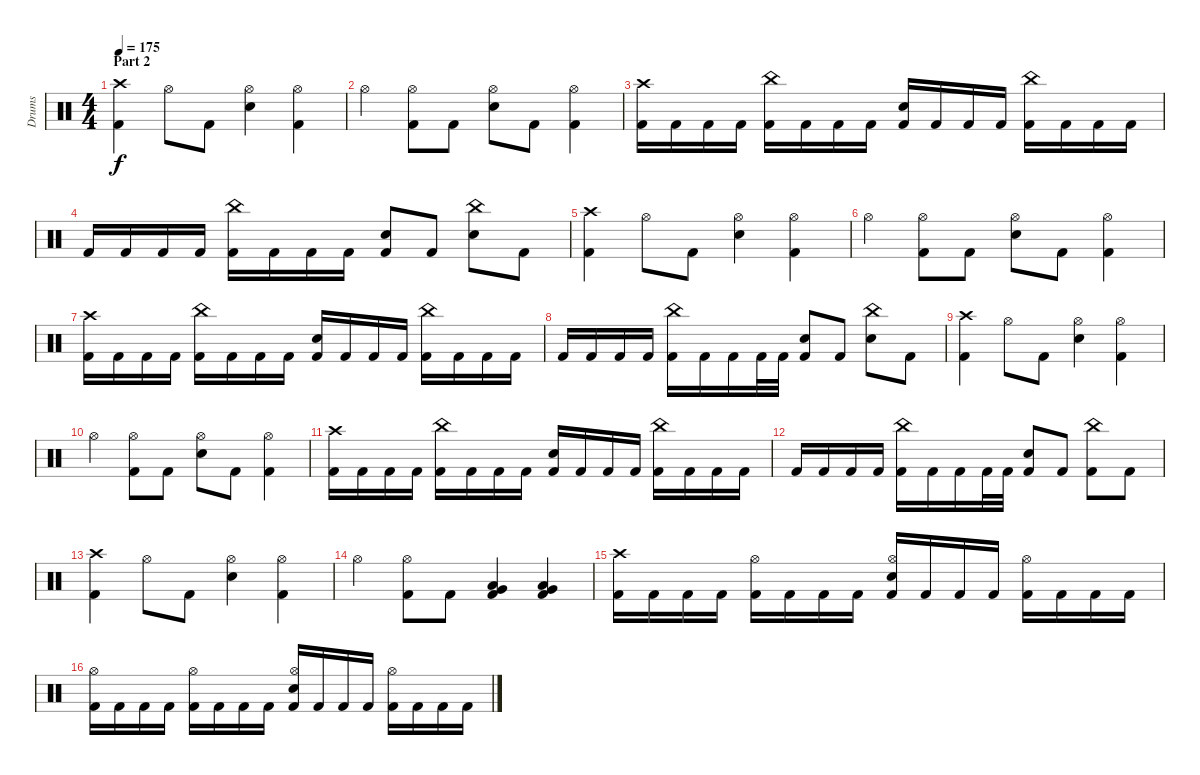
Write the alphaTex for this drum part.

\track ("Drums" "Drums") {instrument percussion}
\staff {score}
\articulation defaults
\ts (4 4)
\section ("" "Part 2")
\tempo 175
\clef neutral
\ks c
("Crash high (hit)" "Kick (hit) 2").4{dy f} "Hi-Hat (open)".8 "Kick (hit) 2".8 ("Hi-Hat (open)" "Snare (hit) 2").4 ("Hi-Hat (open)" "Kick (hit) 2").4 |
"Hi-Hat (open)".4 ("Hi-Hat (open)" "Kick (hit) 2").8 "Kick (hit) 2".8 ("Hi-Hat (open)" "Snare (hit) 2").8 "Kick (hit) 2".8 ("Hi-Hat (open)" "Kick (hit) 2").4 |
("Crash high (hit)" "Kick (hit) 2").16 "Kick (hit) 2".16 "Kick (hit) 2".16 "Kick (hit) 2".16 ("China (hit)" "Kick (hit) 2").16 "Kick (hit) 2".16 "Kick (hit) 2".16 "Kick (hit) 2".16 ("Snare (hit) 2" "Kick (hit) 2").16 "Kick (hit) 2".16 "Kick (hit) 2".16 "Kick (hit) 2".16 ("China (hit)" "Kick (hit) 2").16 "Kick (hit) 2".16 "Kick (hit) 2".16 "Kick (hit) 2".16 |
"Kick (hit) 2".16 "Kick (hit) 2".16 "Kick (hit) 2".16 "Kick (hit) 2".16 ("China (hit)" "Kick (hit) 2").16 "Kick (hit) 2".16 "Kick (hit) 2".16 "Kick (hit) 2".16 ("Snare (hit) 2" "Kick (hit) 2").8 "Kick (hit) 2".8 ("China (hit)" "Snare (hit) 2").8 "Kick (hit) 2".8 |
("Crash high (hit)" "Kick (hit) 2").4 "Hi-Hat (open)".8 "Kick (hit) 2".8 ("Hi-Hat (open)" "Snare (hit) 2").4 ("Hi-Hat (open)" "Kick (hit) 2").4 |
"Hi-Hat (open)".4 ("Hi-Hat (open)" "Kick (hit) 2").8 "Kick (hit) 2".8 ("Hi-Hat (open)" "Snare (hit) 2").8 "Kick (hit) 2".8 ("Hi-Hat (open)" "Kick (hit) 2").4 |
("Crash high (hit)" "Kick (hit) 2").16 "Kick (hit) 2".16 "Kick (hit) 2".16 "Kick (hit) 2".16 ("China (hit)" "Kick (hit) 2").16 "Kick (hit) 2".16 "Kick (hit) 2".16 "Kick (hit) 2".16 ("Snare (hit) 2" "Kick (hit) 2").16 "Kick (hit) 2".16 "Kick (hit) 2".16 "Kick (hit) 2".16 ("China (hit)" "Kick (hit) 2").16 "Kick (hit) 2".16 "Kick (hit) 2".16 "Kick (hit) 2".16 |
"Kick (hit) 2".16 "Kick (hit) 2".16 "Kick (hit) 2".16 "Kick (hit) 2".16 ("China (hit)" "Kick (hit) 2").16 "Kick (hit) 2".16 "Kick (hit) 2".16 "Kick (hit) 2".32 "Kick (hit) 2".32 ("Snare (hit) 2" "Kick (hit) 2").8 "Kick (hit) 2".8 ("China (hit)" "Snare (hit) 2").8 "Kick (hit) 2".8 |
("Crash high (hit)" "Kick (hit) 2").4 "Hi-Hat (open)".8 "Kick (hit) 2".8 ("Hi-Hat (open)" "Snare (hit) 2").4 ("Hi-Hat (open)" "Kick (hit) 2").4 |
"Hi-Hat (open)".4 ("Hi-Hat (open)" "Kick (hit) 2").8 "Kick (hit) 2".8 ("Hi-Hat (open)" "Snare (hit) 2").8 "Kick (hit) 2".8 ("Hi-Hat (open)" "Kick (hit) 2").4 |
("Crash high (hit)" "Kick (hit) 2").16 "Kick (hit) 2".16 "Kick (hit) 2".16 "Kick (hit) 2".16 ("China (hit)" "Kick (hit) 2").16 "Kick (hit) 2".16 "Kick (hit) 2".16 "Kick (hit) 2".16 ("Snare (hit) 2" "Kick (hit) 2").16 "Kick (hit) 2".16 "Kick (hit) 2".16 "Kick (hit) 2".16 ("China (hit)" "Kick (hit) 2").16 "Kick (hit) 2".16 "Kick (hit) 2".16 "Kick (hit) 2".16 |
"Kick (hit) 2".16 "Kick (hit) 2".16 "Kick (hit) 2".16 "Kick (hit) 2".16 ("China (hit)" "Kick (hit) 2").16 "Kick (hit) 2".16 "Kick (hit) 2".16 "Kick (hit) 2".32 "Kick (hit) 2".32 ("Snare (hit) 2" "Kick (hit) 2").8 "Kick (hit) 2".8 ("China (hit)" "Kick (hit) 2").8 "Kick (hit) 2".8 |
("Crash high (hit)" "Kick (hit) 2").4 "Hi-Hat (open)".8 "Kick (hit) 2".8 ("Hi-Hat (open)" "Snare (hit) 2").4 ("Hi-Hat (open)" "Kick (hit) 2").4 |
"Hi-Hat (open)".4 ("Hi-Hat (open)" "Kick (hit) 2").8 "Kick (hit) 2".8 ("Low Tom (hit)" "Very Low Tom (hit)" "Kick (hit) 2").4 ("Low Tom (hit)" "Very Low Tom (hit)" "Kick (hit) 2").4 |
("Crash high (hit)" "Kick (hit) 2").16 "Kick (hit) 2".16 "Kick (hit) 2".16 "Kick (hit) 2".16 ("Hi-Hat (open)" "Kick (hit) 2").16 "Kick (hit) 2".16 "Kick (hit) 2".16 "Kick (hit) 2".16 ("Hi-Hat (open)" "Snare (hit) 2" "Kick (hit) 2").16 "Kick (hit) 2".16 "Kick (hit) 2".16 "Kick (hit) 2".16 ("Hi-Hat (open)" "Kick (hit) 2").16 "Kick (hit) 2".16 "Kick (hit) 2".16 "Kick (hit) 2".16 |
("Hi-Hat (open)" "Kick (hit) 2").16 "Kick (hit) 2".16 "Kick (hit) 2".16 "Kick (hit) 2".16 ("Hi-Hat (open)" "Kick (hit) 2").16 "Kick (hit) 2".16 "Kick (hit) 2".16 "Kick (hit) 2".16 ("Hi-Hat (open)" "Snare (hit) 2" "Kick (hit) 2").16 "Kick (hit) 2".16 "Kick (hit) 2".16 "Kick (hit) 2".16 ("Hi-Hat (open)" "Kick (hit) 2").16 "Kick (hit) 2".16 "Kick (hit) 2".16 "Kick (hit) 2".16
